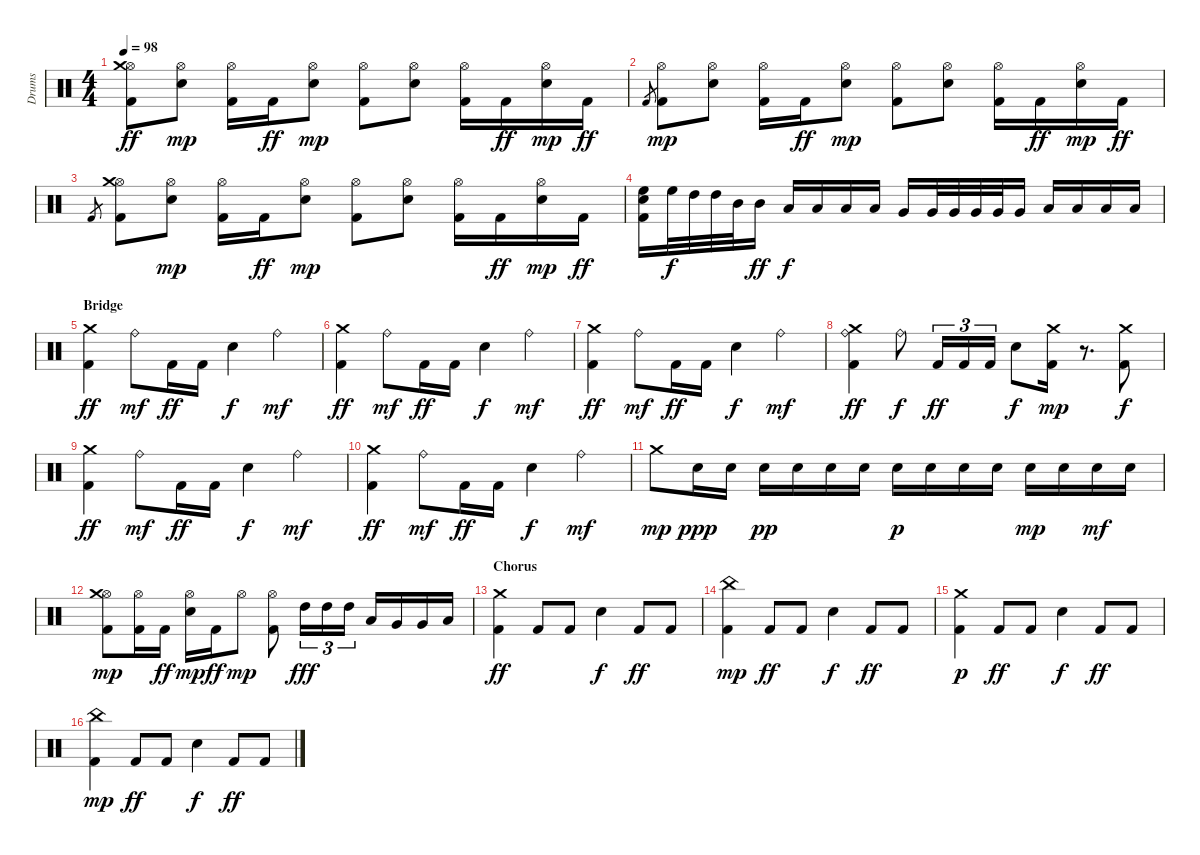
\track ("Drums" "Drums") {instrument percussion}
\staff {score}
\articulation defaults
\ts (4 4)
\tempo 98
\clef neutral
\ks c
("Kick (hit) 2" "Hi-Hat (open)" "Crash medium (hit)").8{dy ff} ("Hi-Hat (open)" "Snare (hit) 2").8{dy mp} ("Kick (hit) 2" "Hi-Hat (open)").16 "Kick (hit) 2".16{dy ff} ("Hi-Hat (open)" "Snare (hit) 2").8{dy mp} ("Kick (hit) 2" "Hi-Hat (open)").8 ("Hi-Hat (open)" "Snare (hit) 2").8 ("Kick (hit) 2" "Hi-Hat (open)").16 "Kick (hit) 2".16{dy ff} ("Hi-Hat (open)" "Snare (hit) 2").16{dy mp} "Kick (hit) 2".16{dy ff} |
"Kick (hit) 2".8{gr} ("Kick (hit) 2" "Hi-Hat (open)").8{dy mp} ("Hi-Hat (open)" "Snare (hit) 2").8 ("Kick (hit) 2" "Hi-Hat (open)").16 "Kick (hit) 2".16{dy ff} ("Hi-Hat (open)" "Snare (hit) 2").8{dy mp} ("Kick (hit) 2" "Hi-Hat (open)").8 ("Hi-Hat (open)" "Snare (hit) 2").8 ("Kick (hit) 2" "Hi-Hat (open)").16 "Kick (hit) 2".16{dy ff} ("Hi-Hat (open)" "Snare (hit) 2").16{dy mp} "Kick (hit) 2".16{dy ff} |
"Kick (hit) 2".8{gr} ("Kick (hit) 2" "Hi-Hat (open)" "Crash medium (hit)").8 ("Hi-Hat (open)" "Snare (hit) 2").8{dy mp} ("Kick (hit) 2" "Hi-Hat (open)").16 "Kick (hit) 2".16{dy ff} ("Hi-Hat (open)" "Snare (hit) 2").8{dy mp} ("Kick (hit) 2" "Hi-Hat (open)").8 ("Hi-Hat (open)" "Snare (hit) 2").8 ("Kick (hit) 2" "Hi-Hat (open)").16 "Kick (hit) 2".16{dy ff} ("Hi-Hat (open)" "Snare (hit) 2").16{dy mp} "Kick (hit) 2".16{dy ff} |
("Kick (hit) 2" "High Floor Tom (hit)" "Snare (hit) 2").16 "High Floor Tom (hit)".32{dy f} "High Tom (hit)".32 "High Tom (hit)".32 "Mid Tom (hit)".32 "Mid Tom (hit)".16{dy ff} "Low Tom (hit)".16{dy f} "Low Tom (hit)".16 "Low Tom (hit)".16 "Low Tom (hit)".16 "Very Low Tom (hit)".16 "Very Low Tom (hit)".32 "Very Low Tom (hit)".32 "Very Low Tom (hit)".32 "Very Low Tom (hit)".32 "Very Low Tom (hit)".16 "Low Floor Tom (hit)".16 "Low Floor Tom (hit)".16 "Low Floor Tom (hit)".16 "Low Floor Tom (hit)".16 |
\section ("" "Bridge")
("Kick (hit) 2" "Crash medium (hit)").4{dy ff} "Ride (bell)".8{dy mf} "Kick (hit) 2".16{dy ff} "Kick (hit) 2".16 "Snare (hit) 2".4{dy f} "Ride (bell)".4{dy mf} |
("Kick (hit) 2" "Crash medium (hit)").4{dy ff} "Ride (bell)".8{dy mf} "Kick (hit) 2".16{dy ff} "Kick (hit) 2".16 "Snare (hit) 2".4{dy f} "Ride (bell)".4{dy mf} |
("Kick (hit) 2" "Crash medium (hit)").4{dy ff} "Ride (bell)".8{dy mf} "Kick (hit) 2".16{dy ff} "Kick (hit) 2".16 "Snare (hit) 2".4{dy f} "Ride (bell)".4{dy mf} |
("Kick (hit) 2" "Ride (bell)" "Crash medium (hit)").4{dy ff} "Ride (bell)".8{dy f} "Kick (hit) 2".16{tu (3 2) dy ff} "Kick (hit) 2".16{tu (3 2)} "Kick (hit) 2".16{tu (3 2)} "Snare (hit) 2".8{dy f} ("Kick (hit) 2" "Crash medium (hit)").16{dy mp} r.8{d} ("Kick (hit) 2" "Crash medium (hit)").8{dy f} |
("Kick (hit) 2" "Crash medium (hit)").4{dy ff} "Ride (bell)".8{dy mf} "Kick (hit) 2".16{dy ff} "Kick (hit) 2".16 "Snare (hit) 2".4{dy f} "Ride (bell)".4{dy mf} |
("Kick (hit) 2" "Crash medium (hit)").4{dy ff} "Ride (bell)".8{dy mf} "Kick (hit) 2".16{dy ff} "Kick (hit) 2".16 "Snare (hit) 2".4{dy f} "Ride (bell)".4{dy mf} |
"Crash medium (hit)".8{dy mp} "Snare (hit) 2".16{dy ppp} "Snare (hit) 2".16 "Snare (hit) 2".16{dy pp} "Snare (hit) 2".16 "Snare (hit) 2".16 "Snare (hit) 2".16 "Snare (hit) 2".16{dy p} "Snare (hit) 2".16 "Snare (hit) 2".16 "Snare (hit) 2".16 "Snare (hit) 2".16{dy mp} "Snare (hit) 2".16 "Snare (hit) 2".16{dy mf} "Snare (hit) 2".16 |
("Kick (hit) 2" "Hi-Hat (open)" "Crash medium (hit)").8{dy mp} ("Kick (hit) 2" "Hi-Hat (open)").16 "Kick (hit) 2".16{dy ff} ("Hi-Hat (open)" "Snare (hit) 2").16{dy mp} "Kick (hit) 2".16{dy ff} "Hi-Hat (open)".8{dy mp} ("Kick (hit) 2" "Hi-Hat (open)").8 "High Tom (hit)".16{tu (3 2) dy fff} "High Tom (hit)".16{tu (3 2)} "High Tom (hit)".16{tu (3 2)} "Low Tom (hit)".16 "Very Low Tom (hit)".16 "Very Low Tom (hit)".16 "Low Floor Tom (hit)".16 |
\section ("" "Chorus")
("Kick (hit) 2" "Crash medium (hit)").4{dy ff} "Kick (hit) 2".8 "Kick (hit) 2".8 "Snare (hit) 2".4{dy f} "Kick (hit) 2".8{dy ff} "Kick (hit) 2".8 |
("Kick (hit) 2" "China (hit)").4{dy mp} "Kick (hit) 2".8{dy ff} "Kick (hit) 2".8 "Snare (hit) 2".4{dy f} "Kick (hit) 2".8{dy ff} "Kick (hit) 2".8 |
("Kick (hit) 2" "Crash medium (hit)").4{dy p} "Kick (hit) 2".8{dy ff} "Kick (hit) 2".8 "Snare (hit) 2".4{dy f} "Kick (hit) 2".8{dy ff} "Kick (hit) 2".8 |
("Kick (hit) 2" "China (hit)").4{dy mp} "Kick (hit) 2".8{dy ff} "Kick (hit) 2".8 "Snare (hit) 2".4{dy f} "Kick (hit) 2".8{dy ff} "Kick (hit) 2".8
